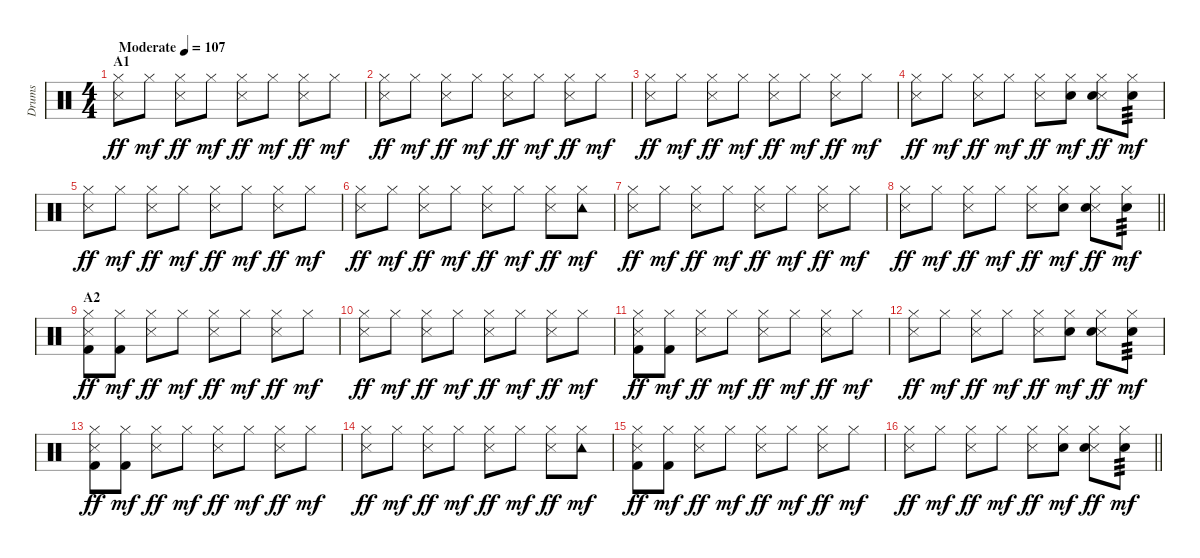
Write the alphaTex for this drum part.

\track ("Drums" "Drums") {instrument percussion}
\staff {score}
\articulation defaults
\ts (4 4)
\section ("" "A1")
\tempo (107 "Moderate")
\clef neutral
\ks c
("Hi-Hat (closed)" "Snare (side stick) 3").8{dy ff} "Hi-Hat (closed)".8{dy mf} ("Hi-Hat (closed)" "Snare (side stick) 3").8{dy ff} "Hi-Hat (closed)".8{dy mf} ("Hi-Hat (closed)" "Snare (side stick) 3").8{dy ff} "Hi-Hat (closed)".8{dy mf} ("Hi-Hat (closed)" "Snare (side stick) 3").8{dy ff} "Hi-Hat (closed)".8{dy mf} |
("Hi-Hat (closed)" "Snare (side stick) 3").8{dy ff} "Hi-Hat (closed)".8{dy mf} ("Hi-Hat (closed)" "Snare (side stick) 3").8{dy ff} "Hi-Hat (closed)".8{dy mf} ("Hi-Hat (closed)" "Snare (side stick) 3").8{dy ff} "Hi-Hat (closed)".8{dy mf} ("Hi-Hat (closed)" "Snare (side stick) 3").8{dy ff} "Hi-Hat (closed)".8{dy mf} |
("Hi-Hat (closed)" "Snare (side stick) 3").8{dy ff} "Hi-Hat (closed)".8{dy mf} ("Hi-Hat (closed)" "Snare (side stick) 3").8{dy ff} "Hi-Hat (closed)".8{dy mf} ("Hi-Hat (closed)" "Snare (side stick) 3").8{dy ff} "Hi-Hat (closed)".8{dy mf} ("Hi-Hat (closed)" "Snare (side stick) 3").8{dy ff} "Hi-Hat (closed)".8{dy mf} |
("Hi-Hat (closed)" "Snare (side stick) 3").8{dy ff} "Hi-Hat (closed)".8{dy mf} ("Hi-Hat (closed)" "Snare (side stick) 3").8{dy ff} "Hi-Hat (closed)".8{dy mf} ("Hi-Hat (closed)" "Snare (side stick) 3").8{dy ff} ("Hi-Hat (closed)" "Snare (hit) 2").8{dy mf} ("Hi-Hat (closed)" "Snare (side stick) 3" "Snare (hit) 2").8{dy ff} ("Hi-Hat (closed)" "Snare (hit) 2").8{tp 3 dy mf} |
("Hi-Hat (closed)" "Snare (side stick) 3").8{dy ff} "Hi-Hat (closed)".8{dy mf} ("Hi-Hat (closed)" "Snare (side stick) 3").8{dy ff} "Hi-Hat (closed)".8{dy mf} ("Hi-Hat (closed)" "Snare (side stick) 3").8{dy ff} "Hi-Hat (closed)".8{dy mf} ("Hi-Hat (closed)" "Snare (side stick) 3").8{dy ff} "Hi-Hat (closed)".8{dy mf} |
("Hi-Hat (closed)" "Snare (side stick) 3").8{dy ff} "Hi-Hat (closed)".8{dy mf} ("Hi-Hat (closed)" "Snare (side stick) 3").8{dy ff} "Hi-Hat (closed)".8{dy mf} ("Hi-Hat (closed)" "Snare (side stick) 3").8{dy ff} "Hi-Hat (closed)".8{dy mf} ("Hi-Hat (closed)" "Snare (side stick) 3").8{dy ff} ("Hi-Hat (closed)" "Tambourine (hit)").8{dy mf} |
("Hi-Hat (closed)" "Snare (side stick) 3").8{dy ff} "Hi-Hat (closed)".8{dy mf} ("Hi-Hat (closed)" "Snare (side stick) 3").8{dy ff} "Hi-Hat (closed)".8{dy mf} ("Hi-Hat (closed)" "Snare (side stick) 3").8{dy ff} "Hi-Hat (closed)".8{dy mf} ("Hi-Hat (closed)" "Snare (side stick) 3").8{dy ff} "Hi-Hat (closed)".8{dy mf} |
\barLineRight lightlight
("Hi-Hat (closed)" "Snare (side stick) 3").8{dy ff} "Hi-Hat (closed)".8{dy mf} ("Hi-Hat (closed)" "Snare (side stick) 3").8{dy ff} "Hi-Hat (closed)".8{dy mf} ("Hi-Hat (closed)" "Snare (side stick) 3").8{dy ff} ("Hi-Hat (closed)" "Snare (hit) 2").8{dy mf} ("Hi-Hat (closed)" "Snare (side stick) 3" "Snare (hit) 2").8{dy ff} ("Hi-Hat (closed)" "Snare (hit) 2").8{tp 3 dy mf} |
\section ("" "A2")
("Hi-Hat (closed)" "Snare (side stick) 3" "Kick (hit) 2").8{dy ff} ("Hi-Hat (closed)" "Kick (hit) 2").8{dy mf} ("Hi-Hat (closed)" "Snare (side stick) 3").8{dy ff} "Hi-Hat (closed)".8{dy mf} ("Hi-Hat (closed)" "Snare (side stick) 3").8{dy ff} "Hi-Hat (closed)".8{dy mf} ("Hi-Hat (closed)" "Snare (side stick) 3").8{dy ff} "Hi-Hat (closed)".8{dy mf} |
("Hi-Hat (closed)" "Snare (side stick) 3").8{dy ff} "Hi-Hat (closed)".8{dy mf} ("Hi-Hat (closed)" "Snare (side stick) 3").8{dy ff} "Hi-Hat (closed)".8{dy mf} ("Hi-Hat (closed)" "Snare (side stick) 3").8{dy ff} "Hi-Hat (closed)".8{dy mf} ("Hi-Hat (closed)" "Snare (side stick) 3").8{dy ff} "Hi-Hat (closed)".8{dy mf} |
("Hi-Hat (closed)" "Snare (side stick) 3" "Kick (hit) 2").8{dy ff} ("Hi-Hat (closed)" "Kick (hit) 2").8{dy mf} ("Hi-Hat (closed)" "Snare (side stick) 3").8{dy ff} "Hi-Hat (closed)".8{dy mf} ("Hi-Hat (closed)" "Snare (side stick) 3").8{dy ff} "Hi-Hat (closed)".8{dy mf} ("Hi-Hat (closed)" "Snare (side stick) 3").8{dy ff} "Hi-Hat (closed)".8{dy mf} |
("Hi-Hat (closed)" "Snare (side stick) 3").8{dy ff} "Hi-Hat (closed)".8{dy mf} ("Hi-Hat (closed)" "Snare (side stick) 3").8{dy ff} "Hi-Hat (closed)".8{dy mf} ("Hi-Hat (closed)" "Snare (side stick) 3").8{dy ff} ("Hi-Hat (closed)" "Snare (hit) 2").8{dy mf} ("Hi-Hat (closed)" "Snare (side stick) 3" "Snare (hit) 2").8{dy ff} ("Hi-Hat (closed)" "Snare (hit) 2").8{tp 3 dy mf} |
("Hi-Hat (closed)" "Snare (side stick) 3" "Kick (hit) 2").8{dy ff} ("Hi-Hat (closed)" "Kick (hit) 2").8{dy mf} ("Hi-Hat (closed)" "Snare (side stick) 3").8{dy ff} "Hi-Hat (closed)".8{dy mf} ("Hi-Hat (closed)" "Snare (side stick) 3").8{dy ff} "Hi-Hat (closed)".8{dy mf} ("Hi-Hat (closed)" "Snare (side stick) 3").8{dy ff} "Hi-Hat (closed)".8{dy mf} |
("Hi-Hat (closed)" "Snare (side stick) 3").8{dy ff} "Hi-Hat (closed)".8{dy mf} ("Hi-Hat (closed)" "Snare (side stick) 3").8{dy ff} "Hi-Hat (closed)".8{dy mf} ("Hi-Hat (closed)" "Snare (side stick) 3").8{dy ff} "Hi-Hat (closed)".8{dy mf} ("Hi-Hat (closed)" "Snare (side stick) 3").8{dy ff} ("Hi-Hat (closed)" "Tambourine (hit)").8{dy mf} |
("Hi-Hat (closed)" "Snare (side stick) 3" "Kick (hit) 2").8{dy ff} ("Hi-Hat (closed)" "Kick (hit) 2").8{dy mf} ("Hi-Hat (closed)" "Snare (side stick) 3").8{dy ff} "Hi-Hat (closed)".8{dy mf} ("Hi-Hat (closed)" "Snare (side stick) 3").8{dy ff} "Hi-Hat (closed)".8{dy mf} ("Hi-Hat (closed)" "Snare (side stick) 3").8{dy ff} "Hi-Hat (closed)".8{dy mf} |
\barLineRight lightlight
("Hi-Hat (closed)" "Snare (side stick) 3").8{dy ff} "Hi-Hat (closed)".8{dy mf} ("Hi-Hat (closed)" "Snare (side stick) 3").8{dy ff} "Hi-Hat (closed)".8{dy mf} ("Hi-Hat (closed)" "Snare (side stick) 3").8{dy ff} ("Hi-Hat (closed)" "Snare (hit) 2").8{dy mf} ("Hi-Hat (closed)" "Snare (side stick) 3" "Snare (hit) 2").8{dy ff} ("Hi-Hat (closed)" "Snare (hit) 2").8{tp 3 dy mf}
